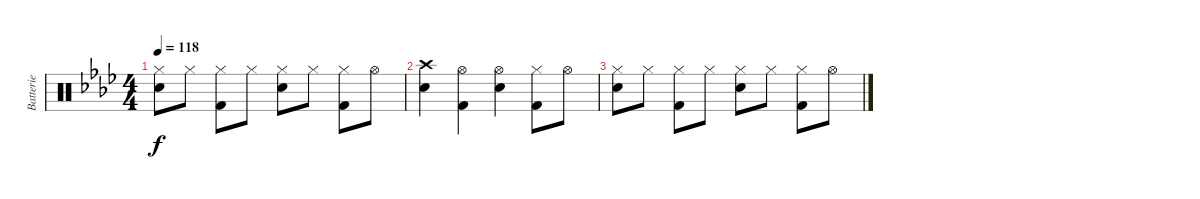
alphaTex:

\track ("Batterie" "Batterie") {instrument percussion}
\staff {score}
\articulation defaults
\ts (4 4)
\tempo 118
\clef neutral
\ks ab
("Hi-Hat (closed)" "Snare (hit) 2").8{dy f} "Hi-Hat (closed)".8 ("Hi-Hat (closed)" "Kick (hit) 2").8 "Hi-Hat (closed)".8 ("Hi-Hat (closed)" "Snare (hit) 2").8 "Hi-Hat (closed)".8 ("Hi-Hat (closed)" "Kick (hit) 2").8 "Hi-Hat (open)".8 |
("Crash high (hit)" "Snare (hit) 2").4 ("Hi-Hat (open)" "Kick (hit) 2").4 ("Hi-Hat (open)" "Snare (hit) 2").4 ("Hi-Hat (closed)" "Kick (hit) 2").8 "Hi-Hat (open)".8 |
("Hi-Hat (closed)" "Snare (hit) 2").8 "Hi-Hat (closed)".8 ("Hi-Hat (closed)" "Kick (hit) 2").8 "Hi-Hat (closed)".8 ("Hi-Hat (closed)" "Snare (hit) 2").8 "Hi-Hat (closed)".8 ("Hi-Hat (closed)" "Kick (hit) 2").8 "Hi-Hat (open)".8
